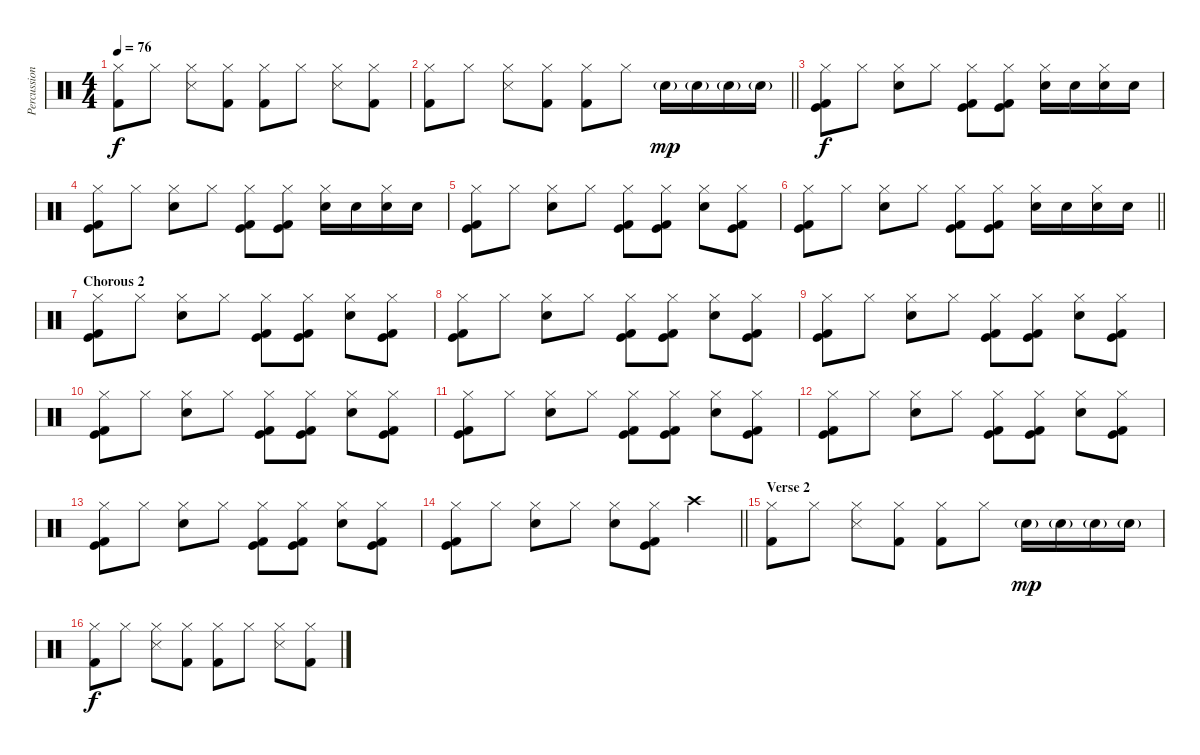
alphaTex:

\track ("Percussion" "Percussion") {instrument percussion}
\staff {score}
\articulation defaults
\ts (4 4)
\tempo 76
\clef neutral
\ks c
("Hi-Hat (closed)" "Kick (hit) 2").8{dy f} "Hi-Hat (closed)".8 ("Hi-Hat (closed)" "Snare (side stick) 3").8 ("Hi-Hat (closed)" "Kick (hit) 2").8 ("Hi-Hat (closed)" "Kick (hit) 2").8 "Hi-Hat (closed)".8 ("Hi-Hat (closed)" "Snare (side stick) 3").8 ("Hi-Hat (closed)" "Kick (hit) 2").8 |
\barLineRight lightlight
("Hi-Hat (closed)" "Kick (hit) 2").8 "Hi-Hat (closed)".8 ("Hi-Hat (closed)" "Snare (side stick) 3").8 ("Hi-Hat (closed)" "Kick (hit) 2").8 ("Hi-Hat (closed)" "Kick (hit) 2").8 "Hi-Hat (closed)".8 "Electric Snare (hit)"{g}.16{dy mp} "Electric Snare (hit)"{g}.16 "Electric Snare (hit)"{g}.16 "Electric Snare (hit)"{g}.16 |
\section ("" "")
("Hi-Hat (closed)" "Kick (hit)" "Kick (hit) 2").8{dy f} "Hi-Hat (closed)".8 ("Hi-Hat (closed)" "Electric Snare (hit)").8 "Hi-Hat (closed)".8 ("Hi-Hat (closed)" "Kick (hit)" "Kick (hit) 2").8 ("Hi-Hat (closed)" "Kick (hit)" "Kick (hit) 2").8 ("Hi-Hat (closed)" "Electric Snare (hit)").16 "Electric Snare (hit)".16 ("Hi-Hat (closed)" "Electric Snare (hit)").16 "Electric Snare (hit)".16 |
("Hi-Hat (closed)" "Kick (hit)" "Kick (hit) 2").8 "Hi-Hat (closed)".8 ("Hi-Hat (closed)" "Electric Snare (hit)").8 "Hi-Hat (closed)".8 ("Hi-Hat (closed)" "Kick (hit)" "Kick (hit) 2").8 ("Hi-Hat (closed)" "Kick (hit)" "Kick (hit) 2").8 ("Hi-Hat (closed)" "Electric Snare (hit)").16 "Electric Snare (hit)".16 ("Hi-Hat (closed)" "Electric Snare (hit)").16 "Electric Snare (hit)".16 |
("Hi-Hat (closed)" "Kick (hit)" "Kick (hit) 2").8 "Hi-Hat (closed)".8 ("Hi-Hat (closed)" "Electric Snare (hit)").8 "Hi-Hat (closed)".8 ("Hi-Hat (closed)" "Kick (hit)" "Kick (hit) 2").8 ("Hi-Hat (closed)" "Kick (hit)" "Kick (hit) 2").8 ("Hi-Hat (closed)" "Electric Snare (hit)").8 ("Hi-Hat (closed)" "Kick (hit)" "Kick (hit) 2").8 |
\barLineRight lightlight
("Hi-Hat (closed)" "Kick (hit)" "Kick (hit) 2").8 "Hi-Hat (closed)".8 ("Hi-Hat (closed)" "Electric Snare (hit)").8 "Hi-Hat (closed)".8 ("Hi-Hat (closed)" "Kick (hit)" "Kick (hit) 2").8 ("Hi-Hat (closed)" "Kick (hit)" "Kick (hit) 2").8 ("Hi-Hat (closed)" "Electric Snare (hit)").16 "Electric Snare (hit)".16 ("Hi-Hat (closed)" "Electric Snare (hit)").16 "Electric Snare (hit)".16 |
\section ("" "Chorous 2")
("Hi-Hat (closed)" "Kick (hit)" "Kick (hit) 2").8 "Hi-Hat (closed)".8 ("Hi-Hat (closed)" "Electric Snare (hit)").8 "Hi-Hat (closed)".8 ("Hi-Hat (closed)" "Kick (hit)" "Kick (hit) 2").8 ("Hi-Hat (closed)" "Kick (hit)" "Kick (hit) 2").8 ("Hi-Hat (closed)" "Electric Snare (hit)").8 ("Hi-Hat (closed)" "Kick (hit)" "Kick (hit) 2").8 |
("Hi-Hat (closed)" "Kick (hit)" "Kick (hit) 2").8 "Hi-Hat (closed)".8 ("Hi-Hat (closed)" "Electric Snare (hit)").8 "Hi-Hat (closed)".8 ("Hi-Hat (closed)" "Kick (hit)" "Kick (hit) 2").8 ("Hi-Hat (closed)" "Kick (hit)" "Kick (hit) 2").8 ("Hi-Hat (closed)" "Electric Snare (hit)").8 ("Hi-Hat (closed)" "Kick (hit)" "Kick (hit) 2").8 |
("Hi-Hat (closed)" "Kick (hit)" "Kick (hit) 2").8 "Hi-Hat (closed)".8 ("Hi-Hat (closed)" "Electric Snare (hit)").8 "Hi-Hat (closed)".8 ("Hi-Hat (closed)" "Kick (hit)" "Kick (hit) 2").8 ("Hi-Hat (closed)" "Kick (hit)" "Kick (hit) 2").8 ("Hi-Hat (closed)" "Electric Snare (hit)").8 ("Hi-Hat (closed)" "Kick (hit)" "Kick (hit) 2").8 |
("Hi-Hat (closed)" "Kick (hit)" "Kick (hit) 2").8 "Hi-Hat (closed)".8 ("Hi-Hat (closed)" "Electric Snare (hit)").8 "Hi-Hat (closed)".8 ("Hi-Hat (closed)" "Kick (hit)" "Kick (hit) 2").8 ("Hi-Hat (closed)" "Kick (hit)" "Kick (hit) 2").8 ("Hi-Hat (closed)" "Electric Snare (hit)").8 ("Hi-Hat (closed)" "Kick (hit)" "Kick (hit) 2").8 |
("Hi-Hat (closed)" "Kick (hit)" "Kick (hit) 2").8 "Hi-Hat (closed)".8 ("Hi-Hat (closed)" "Electric Snare (hit)").8 "Hi-Hat (closed)".8 ("Hi-Hat (closed)" "Kick (hit)" "Kick (hit) 2").8 ("Hi-Hat (closed)" "Kick (hit)" "Kick (hit) 2").8 ("Hi-Hat (closed)" "Electric Snare (hit)").8 ("Hi-Hat (closed)" "Kick (hit)" "Kick (hit) 2").8 |
("Hi-Hat (closed)" "Kick (hit)" "Kick (hit) 2").8 "Hi-Hat (closed)".8 ("Hi-Hat (closed)" "Electric Snare (hit)").8 "Hi-Hat (closed)".8 ("Hi-Hat (closed)" "Kick (hit)" "Kick (hit) 2").8 ("Hi-Hat (closed)" "Kick (hit)" "Kick (hit) 2").8 ("Hi-Hat (closed)" "Electric Snare (hit)").8 ("Hi-Hat (closed)" "Kick (hit)" "Kick (hit) 2").8 |
("Hi-Hat (closed)" "Kick (hit)" "Kick (hit) 2").8 "Hi-Hat (closed)".8 ("Hi-Hat (closed)" "Electric Snare (hit)").8 "Hi-Hat (closed)".8 ("Hi-Hat (closed)" "Kick (hit)" "Kick (hit) 2").8 ("Hi-Hat (closed)" "Kick (hit)" "Kick (hit) 2").8 ("Hi-Hat (closed)" "Electric Snare (hit)").8 ("Hi-Hat (closed)" "Kick (hit)" "Kick (hit) 2").8 |
\barLineRight lightlight
("Hi-Hat (closed)" "Kick (hit)" "Kick (hit) 2").8 "Hi-Hat (closed)".8 ("Hi-Hat (closed)" "Electric Snare (hit)").8 "Hi-Hat (closed)".8 ("Hi-Hat (closed)" "Electric Snare (hit)").8 ("Hi-Hat (closed)" "Kick (hit)" "Kick (hit) 2").8 "Crash high (hit)".4 |
\section ("" "Verse 2")
("Hi-Hat (closed)" "Kick (hit) 2").8 "Hi-Hat (closed)".8 ("Hi-Hat (closed)" "Snare (side stick) 3").8 ("Hi-Hat (closed)" "Kick (hit) 2").8 ("Hi-Hat (closed)" "Kick (hit) 2").8 "Hi-Hat (closed)".8 "Electric Snare (hit)"{g}.16{dy mp} "Electric Snare (hit)"{g}.16 "Electric Snare (hit)"{g}.16 "Electric Snare (hit)"{g}.16 |
("Hi-Hat (closed)" "Kick (hit) 2").8{dy f} "Hi-Hat (closed)".8 ("Hi-Hat (closed)" "Snare (side stick) 3").8 ("Hi-Hat (closed)" "Kick (hit) 2").8 ("Hi-Hat (closed)" "Kick (hit) 2").8 "Hi-Hat (closed)".8 ("Hi-Hat (closed)" "Snare (side stick) 3").8 ("Hi-Hat (closed)" "Kick (hit) 2").8
